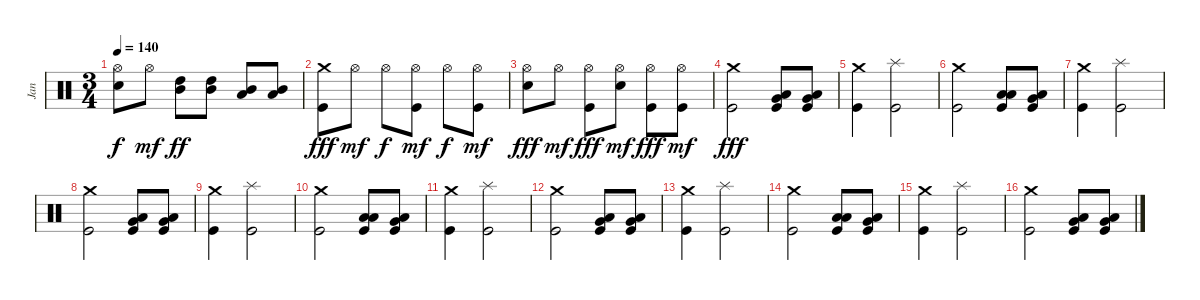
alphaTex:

\track ("Jan" "Jan") {instrument percussion}
\staff {score}
\articulation defaults
\ts (3 4)
\tempo 140
\clef neutral
\ks c
("Snare (hit) 2" "Hi-Hat (open)").8{dy f} "Hi-Hat (open)".8{dy mf} ("Mid Tom (hit)" "High Tom (hit)").8{dy ff} ("Mid Tom (hit)" "High Tom (hit)").8 ("Low Tom (hit)" "Mid Tom (hit)").8 ("Low Tom (hit)" "Mid Tom (hit)").8 |
("Kick (hit)" "Crash medium (hit)").8{dy fff} "Hi-Hat (open)".8{dy mf} "Hi-Hat (open)".8{dy f} ("Kick (hit)" "Hi-Hat (open)").8{dy mf} "Hi-Hat (open)".8{dy f} ("Kick (hit)" "Hi-Hat (open)").8{dy mf} |
("Snare (hit) 2" "Hi-Hat (open)").8{dy fff} "Hi-Hat (open)".8{dy mf} ("Kick (hit)" "Hi-Hat (open)").8{dy fff} ("Snare (hit) 2" "Hi-Hat (open)").8{dy mf} ("Kick (hit)" "Hi-Hat (open)").8{dy fff} ("Kick (hit)" "Hi-Hat (open)").8{dy mf} |
("Kick (hit)" "Crash medium (hit)").2{dy fff} ("Kick (hit)" "Very Low Tom (hit)" "Low Tom (hit)").8 ("Kick (hit)" "Very Low Tom (hit)" "Low Tom (hit)").8 |
("Kick (hit)" "Crash medium (hit)").4 ("Kick (hit)" "Splash (hit)").2 |
("Kick (hit)" "Crash medium (hit)").2 ("Kick (hit)" "Low Tom (hit)" "Low Tom (hit)").8 ("Kick (hit)" "Very Low Tom (hit)" "Low Tom (hit)").8 |
("Kick (hit)" "Crash medium (hit)").4 ("Kick (hit)" "Splash (hit)").2 |
("Kick (hit)" "Crash medium (hit)").2 ("Kick (hit)" "Very Low Tom (hit)" "Low Tom (hit)").8 ("Kick (hit)" "Very Low Tom (hit)" "Low Tom (hit)").8 |
("Kick (hit)" "Crash medium (hit)").4 ("Kick (hit)" "Splash (hit)").2 |
("Kick (hit)" "Crash medium (hit)").2 ("Kick (hit)" "Low Tom (hit)" "Low Tom (hit)").8 ("Kick (hit)" "Very Low Tom (hit)" "Low Tom (hit)").8 |
("Kick (hit)" "Crash medium (hit)").4 ("Kick (hit)" "Splash (hit)").2 |
("Kick (hit)" "Crash medium (hit)").2 ("Kick (hit)" "Very Low Tom (hit)" "Low Tom (hit)").8 ("Kick (hit)" "Very Low Tom (hit)" "Low Tom (hit)").8 |
("Kick (hit)" "Crash medium (hit)").4 ("Kick (hit)" "Splash (hit)").2 |
("Kick (hit)" "Crash medium (hit)").2 ("Kick (hit)" "Low Tom (hit)" "Low Tom (hit)").8 ("Kick (hit)" "Very Low Tom (hit)" "Low Tom (hit)").8 |
("Kick (hit)" "Crash medium (hit)").4 ("Kick (hit)" "Splash (hit)").2 |
("Kick (hit)" "Crash medium (hit)").2 ("Kick (hit)" "Very Low Tom (hit)" "Low Tom (hit)").8 ("Kick (hit)" "Very Low Tom (hit)" "Low Tom (hit)").8
